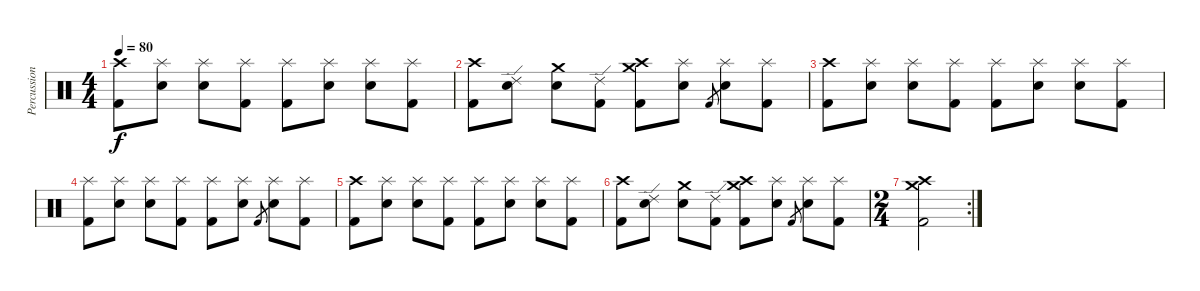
\track ("Percussion" "Percussion") {instrument percussion}
\staff {score}
\articulation defaults
\ts (4 4)
\tempo 80
\clef neutral
\ks c
("Crash high (hit)" "Kick (hit) 2").8{dy f} ("Splash (hit)" "Snare (hit)").8 ("Splash (hit)" "Snare (hit) 2").8 ("Splash (hit)" "Kick (hit) 2").8 ("Splash (hit)" "Kick (hit) 2").8 ("Splash (hit)" "Snare (hit)").8 ("Splash (hit)" "Snare (hit) 2").8 ("Splash (hit)" "Kick (hit) 2").8 |
("Crash high (hit)" "Kick (hit) 2").8 ("Ride (edge) 2" "Snare (hit)").8 ("Crash medium (hit)" "Snare (hit) 2").8 ("Ride (edge) 2" "Kick (hit) 2").8 ("Crash medium (hit)" "Crash high (hit)" "Kick (hit) 2").8 ("Splash (hit)" "Snare (hit)").8 "Kick (hit) 2".8{gr} ("Splash (hit)" "Snare (hit) 2").8 ("Splash (hit)" "Kick (hit) 2").8 |
("Crash high (hit)" "Kick (hit) 2").8 ("Splash (hit)" "Snare (hit)").8 ("Splash (hit)" "Snare (hit) 2").8 ("Splash (hit)" "Kick (hit) 2").8 ("Splash (hit)" "Kick (hit) 2").8 ("Splash (hit)" "Snare (hit)").8 ("Splash (hit)" "Snare (hit) 2").8 ("Splash (hit)" "Kick (hit) 2").8 |
("Splash (hit)" "Kick (hit) 2").8 ("Splash (hit)" "Snare (hit)").8 ("Splash (hit)" "Snare (hit) 2").8 ("Splash (hit)" "Kick (hit) 2").8 ("Splash (hit)" "Kick (hit) 2").8 ("Splash (hit)" "Snare (hit)").8 "Kick (hit) 2".8{gr} ("Splash (hit)" "Snare (hit) 2").8 ("Splash (hit)" "Kick (hit) 2").8 |
("Crash high (hit)" "Kick (hit) 2").8 ("Splash (hit)" "Snare (hit)").8 ("Splash (hit)" "Snare (hit) 2").8 ("Splash (hit)" "Kick (hit) 2").8 ("Splash (hit)" "Kick (hit) 2").8 ("Splash (hit)" "Snare (hit)").8 ("Splash (hit)" "Snare (hit) 2").8 ("Splash (hit)" "Kick (hit) 2").8 |
("Crash high (hit)" "Kick (hit) 2").8 ("Ride (edge) 2" "Snare (hit)").8 ("Crash medium (hit)" "Snare (hit) 2").8 ("Ride (edge) 2" "Kick (hit) 2").8 ("Crash medium (hit)" "Crash high (hit)" "Kick (hit) 2").8 ("Splash (hit)" "Snare (hit)").8 "Kick (hit) 2".8{gr} ("Splash (hit)" "Snare (hit) 2").8 ("Splash (hit)" "Kick (hit) 2").8 |
\rc 2
\ts (2 4)
("Crash high (hit)" "Kick (hit) 2" "Crash medium (hit)").2
